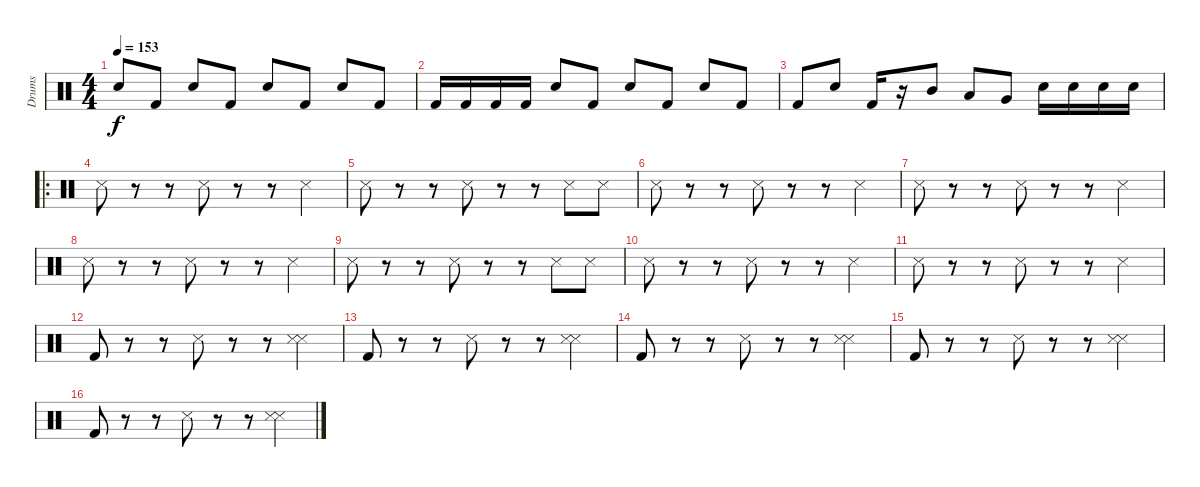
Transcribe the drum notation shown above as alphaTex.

\track ("Drums" "Drums") {instrument percussion}
\staff {score}
\articulation defaults
\ts (4 4)
\tempo 153
\clef neutral
\ks c "Snare (hit) 2".8{dy f} "Kick (hit) 2".8 "Snare (hit) 2".8 "Kick (hit) 2".8 "Snare (hit) 2".8 "Kick (hit) 2".8 "Snare (hit) 2".8 "Kick (hit) 2".8
|
"Kick (hit) 2".16 "Kick (hit) 2".16 "Kick (hit) 2".16 "Kick (hit) 2".16 "Snare (hit) 2".8 "Kick (hit) 2".8 "Snare (hit) 2".8 "Kick (hit) 2".8 "Snare (hit) 2".8 "Kick (hit) 2".8 |
"Kick (hit) 2".8 "Snare (hit) 2".8 "Kick (hit) 2".16 r.16 "Mid Tom (hit)".8 "Low Tom (hit)".8 "Very Low Tom (hit)".8 "Snare (hit) 2".16 "Snare (hit) 2".16 "Snare (hit) 2".16 "Snare (hit) 2".16 |
\ro "Snare (side stick) 3".8
r.8 r.8 "Snare (side stick) 3".8 r.8 r.8 "Snare (side stick) 3".4 |
"Snare (side stick) 3".8 r.8 r.8 "Snare (side stick) 3".8 r.8 r.8 "Snare (side stick) 3".8 "Snare (side stick) 3".8 |
"Snare (side stick) 3".8 r.8 r.8 "Snare (side stick) 3".8 r.8 r.8 "Snare (side stick) 3".4 |
"Snare (side stick) 3".8 r.8 r.8 "Snare (side stick) 3".8 r.8 r.8 "Snare (side stick) 3".4 |
"Snare (side stick) 3".8 r.8 r.8 "Snare (side stick) 3".8 r.8 r.8 "Snare (side stick) 3".4 |
"Snare (side stick) 3".8 r.8 r.8 "Snare (side stick) 3".8 r.8 r.8 "Snare (side stick) 3".8 "Snare (side stick) 3".8 |
"Snare (side stick) 3".8 r.8 r.8 "Snare (side stick) 3".8 r.8 r.8 "Snare (side stick) 3".4 |
"Snare (side stick) 3".8 r.8 r.8 "Snare (side stick) 3".8 r.8 r.8 "Snare (side stick) 3".4 |
"Kick (hit) 2".8 r.8 r.8 "Snare (side stick) 3".8 r.8 r.8 ("Snare (side stick) 3" "Snare (side stick) 3").4 |
"Kick (hit) 2".8 r.8 r.8 "Snare (side stick) 3".8 r.8 r.8 ("Snare (side stick) 3" "Snare (side stick) 3").4 |
"Kick (hit) 2".8 r.8 r.8 "Snare (side stick) 3".8 r.8 r.8 ("Snare (side stick) 3" "Snare (side stick) 3").4 |
"Kick (hit) 2".8 r.8 r.8 "Snare (side stick) 3".8 r.8 r.8 ("Snare (side stick) 3" "Snare (side stick) 3").4 |
"Kick (hit) 2".8 r.8 r.8 "Snare (side stick) 3".8 r.8 r.8 ("Snare (side stick) 3" "Snare (side stick) 3").4
